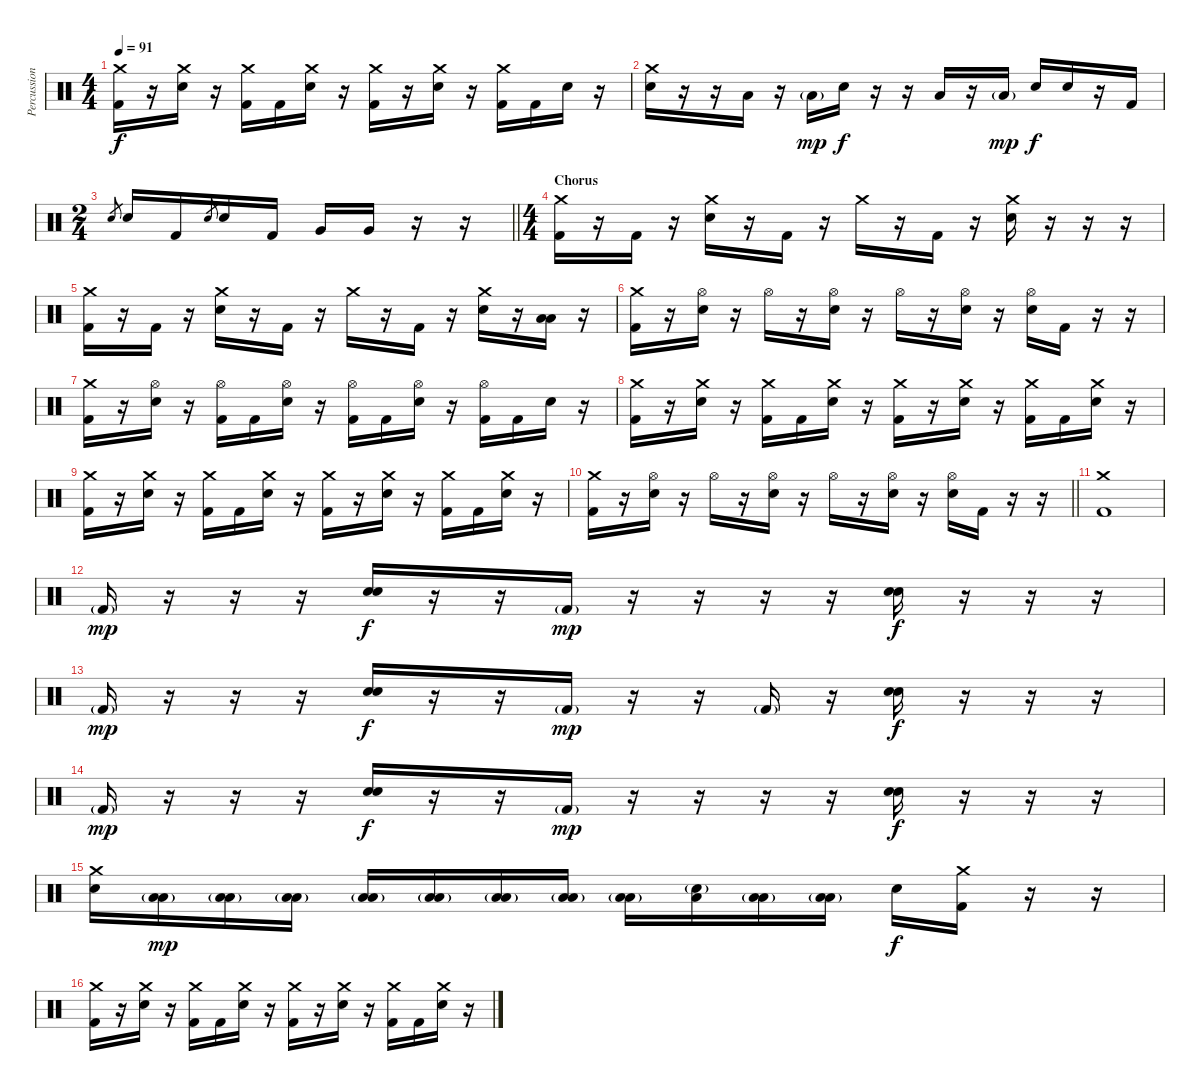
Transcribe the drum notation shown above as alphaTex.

\track ("Percussion" "Percussion") {instrument percussion}
\staff {score}
\articulation defaults
\ts (4 4)
\tempo 91
\clef neutral
\ks c
("Crash medium (hit)" "Kick (hit) 2").16{dy f} r.16 ("Crash medium (hit)" "Electric Snare (hit)").16 r.16 ("Crash medium (hit)" "Kick (hit) 2").16 "Kick (hit) 2".16 ("Crash medium (hit)" "Electric Snare (hit)").16 r.16 ("Crash medium (hit)" "Kick (hit) 2").16 r.16 ("Crash medium (hit)" "Electric Snare (hit)").16 r.16 ("Crash medium (hit)" "Kick (hit) 2").16 "Kick (hit) 2".16 "Electric Snare (hit)".16 r.16 |
("Crash medium (hit)" "Electric Snare (hit)").16 r.16 r.16 "Low Tom (hit)".16 r.16 "Low Tom (hit)"{g}.16{dy mp} "Electric Snare (hit)".16{dy f} r.16 r.16 "Low Tom (hit)".16 r.16 "Low Tom (hit)"{g}.16{dy mp} "Electric Snare (hit)".16{dy f} "Electric Snare (hit)".16 r.16 "Kick (hit) 2".16 |
\ts (2 4)
\barLineRight lightlight "Electric Snare (hit)".8{gr} "Electric Snare (hit)".16 "Kick (hit) 2".16 "Electric Snare (hit)".8{gr} "Electric Snare (hit)".16 "Kick (hit) 2".16 "Very Low Tom (hit)".16 "Very Low Tom (hit)".16
r.16 r.16 |
\ts (4 4)
\section ("" "Chorus")
("Crash medium (hit)" "Kick (hit) 2").16 r.16 "Kick (hit) 2".16 r.16 ("Crash medium (hit)" "Electric Snare (hit)").16 r.16 "Kick (hit) 2".16 r.16 "Crash medium (hit)".16 r.16 "Kick (hit) 2".16 r.16 ("Crash medium (hit)" "Electric Snare (hit)").16 r.16 r.16 r.16 |
("Crash medium (hit)" "Kick (hit) 2").16 r.16 "Kick (hit) 2".16 r.16 ("Crash medium (hit)" "Electric Snare (hit)").16 r.16 "Kick (hit) 2".16 r.16 "Crash medium (hit)".16 r.16 "Kick (hit) 2".16 r.16 ("Crash medium (hit)" "Electric Snare (hit)").16 r.16 ("Low Tom (hit)" "Low Tom (hit)").16 r.16 |
("Crash medium (hit)" "Kick (hit) 2").16 r.16 ("Hi-Hat (open)" "Electric Snare (hit)").16 r.16 "Hi-Hat (open)".16 r.16 ("Hi-Hat (open)" "Electric Snare (hit)").16 r.16 "Hi-Hat (open)".16 r.16 ("Hi-Hat (open)" "Electric Snare (hit)").16 r.16 ("Hi-Hat (open)" "Electric Snare (hit)").16 "Kick (hit) 2".16 r.16 r.16 |
("Crash medium (hit)" "Kick (hit) 2").16 r.16 ("Hi-Hat (open)" "Electric Snare (hit)").16 r.16 ("Hi-Hat (open)" "Kick (hit) 2").16 "Kick (hit) 2".16 ("Hi-Hat (open)" "Electric Snare (hit)").16 r.16 ("Hi-Hat (open)" "Kick (hit) 2").16 "Kick (hit) 2".16 ("Hi-Hat (open)" "Electric Snare (hit)").16 r.16 ("Hi-Hat (open)" "Kick (hit) 2").16 "Kick (hit) 2".16 "Electric Snare (hit)".16 r.16 |
("Crash medium (hit)" "Kick (hit) 2").16 r.16 ("Crash medium (hit)" "Electric Snare (hit)").16 r.16 ("Crash medium (hit)" "Kick (hit) 2").16 "Kick (hit) 2".16 ("Crash medium (hit)" "Electric Snare (hit)").16 r.16 ("Crash medium (hit)" "Kick (hit) 2").16 r.16 ("Crash medium (hit)" "Electric Snare (hit)").16 r.16 ("Crash medium (hit)" "Kick (hit) 2").16 "Kick (hit) 2".16 ("Crash medium (hit)" "Electric Snare (hit)").16 r.16 |
("Crash medium (hit)" "Kick (hit) 2").16 r.16 ("Crash medium (hit)" "Electric Snare (hit)").16 r.16 ("Crash medium (hit)" "Kick (hit) 2").16 "Kick (hit) 2".16 ("Crash medium (hit)" "Electric Snare (hit)").16 r.16 ("Crash medium (hit)" "Kick (hit) 2").16 r.16 ("Crash medium (hit)" "Electric Snare (hit)").16 r.16 ("Crash medium (hit)" "Kick (hit) 2").16 "Kick (hit) 2".16 ("Crash medium (hit)" "Electric Snare (hit)").16 r.16 |
\barLineRight lightlight
("Crash medium (hit)" "Kick (hit) 2").16 r.16 ("Hi-Hat (open)" "Electric Snare (hit)").16 r.16 "Hi-Hat (open)".16 r.16 ("Hi-Hat (open)" "Electric Snare (hit)").16 r.16 "Hi-Hat (open)".16 r.16 ("Hi-Hat (open)" "Electric Snare (hit)").16 r.16 ("Hi-Hat (open)" "Electric Snare (hit)").16 "Kick (hit) 2".16 r.16 r.16 |
("Crash medium (hit)" "Kick (hit) 2").1 |
"Kick (hit) 2"{g}.16{dy mp} r.16 r.16 r.16 ("Hand Clap (hit)" "Hand Clap (hit)").16{dy f} r.16 r.16 "Kick (hit) 2"{g}.16{dy mp} r.16 r.16 r.16 r.16 ("Hand Clap (hit)" "Hand Clap (hit)").16{dy f} r.16 r.16 r.16 |
"Kick (hit) 2"{g}.16{dy mp} r.16 r.16 r.16 ("Hand Clap (hit)" "Hand Clap (hit)").16{dy f} r.16 r.16 "Kick (hit) 2"{g}.16{dy mp} r.16 r.16 "Kick (hit) 2"{g}.16 r.16 ("Hand Clap (hit)" "Hand Clap (hit)").16{dy f} r.16 r.16 r.16 |
"Kick (hit) 2"{g}.16{dy mp} r.16 r.16 r.16 ("Hand Clap (hit)" "Hand Clap (hit)").16{dy f} r.16 r.16 "Kick (hit) 2"{g}.16{dy mp} r.16 r.16 r.16 r.16 ("Hand Clap (hit)" "Hand Clap (hit)").16{dy f} r.16 r.16 r.16 |
("Crash medium (hit)" "Electric Snare (hit)").16 ("Low Floor Tom (hit)"{g} "Low Tom (hit)").16{dy mp} ("Low Floor Tom (hit)"{g} "Low Tom (hit)").16 ("Low Floor Tom (hit)"{g} "Low Tom (hit)").16 ("Low Floor Tom (hit)"{g} "Low Tom (hit)").16 ("Low Floor Tom (hit)"{g} "Low Tom (hit)").16 ("Low Floor Tom (hit)"{g} "Low Tom (hit)").16 ("Low Floor Tom (hit)"{g} "Low Tom (hit)").16 ("Low Floor Tom (hit)"{g} "Low Tom (hit)").16 ("Snare (hit)"{g} "Low Tom (hit)").16 ("Low Floor Tom (hit)"{g} "Low Tom (hit)").16 ("Low Floor Tom (hit)"{g} "Low Tom (hit)").16 "Electric Snare (hit)".16{dy f} ("Crash medium (hit)" "Kick (hit) 2").16 r.16 r.16 |
("Crash medium (hit)" "Kick (hit) 2").16 r.16 ("Crash medium (hit)" "Electric Snare (hit)").16 r.16 ("Crash medium (hit)" "Kick (hit) 2").16 "Kick (hit) 2".16 ("Crash medium (hit)" "Electric Snare (hit)").16 r.16 ("Crash medium (hit)" "Kick (hit) 2").16 r.16 ("Crash medium (hit)" "Electric Snare (hit)").16 r.16 ("Crash medium (hit)" "Kick (hit) 2").16 "Kick (hit) 2".16 ("Crash medium (hit)" "Electric Snare (hit)").16 r.16
